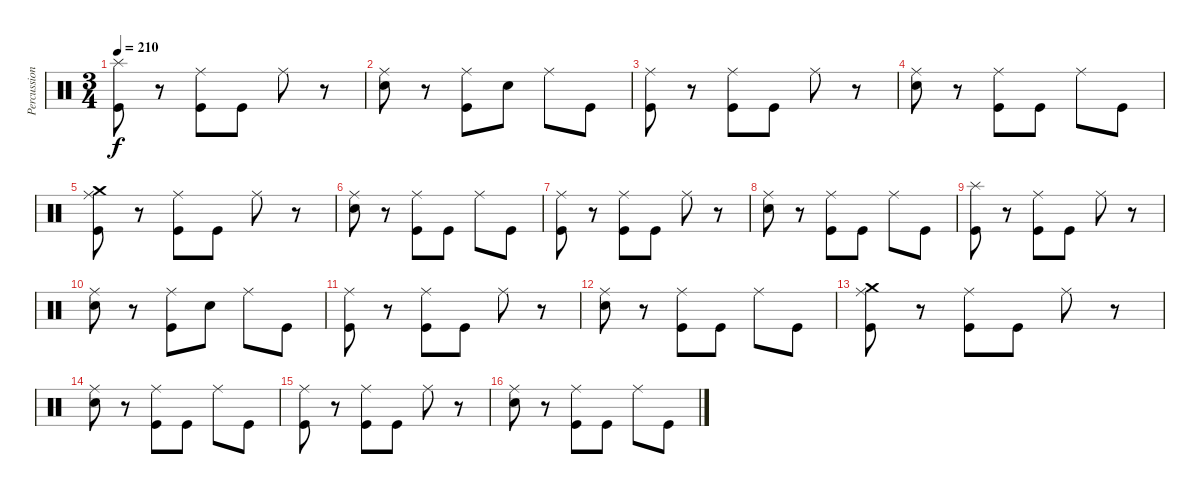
\track ("Percussion" "Percussion") {instrument percussion}
\staff {score}
\articulation defaults
\ts (3 4)
\tempo 210
\clef neutral
\ks c
("Splash (hit)" "Kick (hit)").8{dy f} r.8 ("Ride (middle)" "Kick (hit)").8 "Kick (hit)".8 "Ride (middle)".8 r.8 |
("Ride (middle)" "Electric Snare (hit)").8 r.8 ("Ride (middle)" "Kick (hit)").8 "Electric Snare (hit)".8 "Ride (middle)".8 "Kick (hit)".8 |
("Ride (middle)" "Kick (hit)").8 r.8 ("Ride (middle)" "Kick (hit)").8 "Kick (hit)".8 "Ride (middle)".8 r.8 |
("Ride (middle)" "Electric Snare (hit)").8 r.8 ("Ride (middle)" "Kick (hit)").8 "Kick (hit)".8 "Ride (middle)".8 "Kick (hit)".8 |
("Crash medium (hit)" "Ride (middle)" "Kick (hit)").8 r.8 ("Ride (middle)" "Kick (hit)").8 "Kick (hit)".8 "Ride (middle)".8 r.8 |
("Ride (middle)" "Electric Snare (hit)").8 r.8 ("Ride (middle)" "Kick (hit)").8 "Kick (hit)".8 "Ride (middle)".8 "Kick (hit)".8 |
("Ride (middle)" "Kick (hit)").8 r.8 ("Ride (middle)" "Kick (hit)").8 "Kick (hit)".8 "Ride (middle)".8 r.8 |
("Ride (middle)" "Electric Snare (hit)").8 r.8 ("Ride (middle)" "Kick (hit)").8 "Kick (hit)".8 "Ride (middle)".8 "Kick (hit)".8 |
("Splash (hit)" "Kick (hit)").8 r.8 ("Ride (middle)" "Kick (hit)").8 "Kick (hit)".8 "Ride (middle)".8 r.8 |
("Ride (middle)" "Electric Snare (hit)").8 r.8 ("Ride (middle)" "Kick (hit)").8 "Electric Snare (hit)".8 "Ride (middle)".8 "Kick (hit)".8 |
("Ride (middle)" "Kick (hit)").8 r.8 ("Ride (middle)" "Kick (hit)").8 "Kick (hit)".8 "Ride (middle)".8 r.8 |
("Ride (middle)" "Electric Snare (hit)").8 r.8 ("Ride (middle)" "Kick (hit)").8 "Kick (hit)".8 "Ride (middle)".8 "Kick (hit)".8 |
("Crash medium (hit)" "Ride (middle)" "Kick (hit)").8 r.8 ("Ride (middle)" "Kick (hit)").8 "Kick (hit)".8 "Ride (middle)".8 r.8 |
("Ride (middle)" "Electric Snare (hit)").8 r.8 ("Ride (middle)" "Kick (hit)").8 "Kick (hit)".8 "Ride (middle)".8 "Kick (hit)".8 |
("Ride (middle)" "Kick (hit)").8 r.8 ("Ride (middle)" "Kick (hit)").8 "Kick (hit)".8 "Ride (middle)".8 r.8 |
("Ride (middle)" "Electric Snare (hit)").8 r.8 ("Ride (middle)" "Kick (hit)").8 "Kick (hit)".8 "Ride (middle)".8 "Kick (hit)".8
